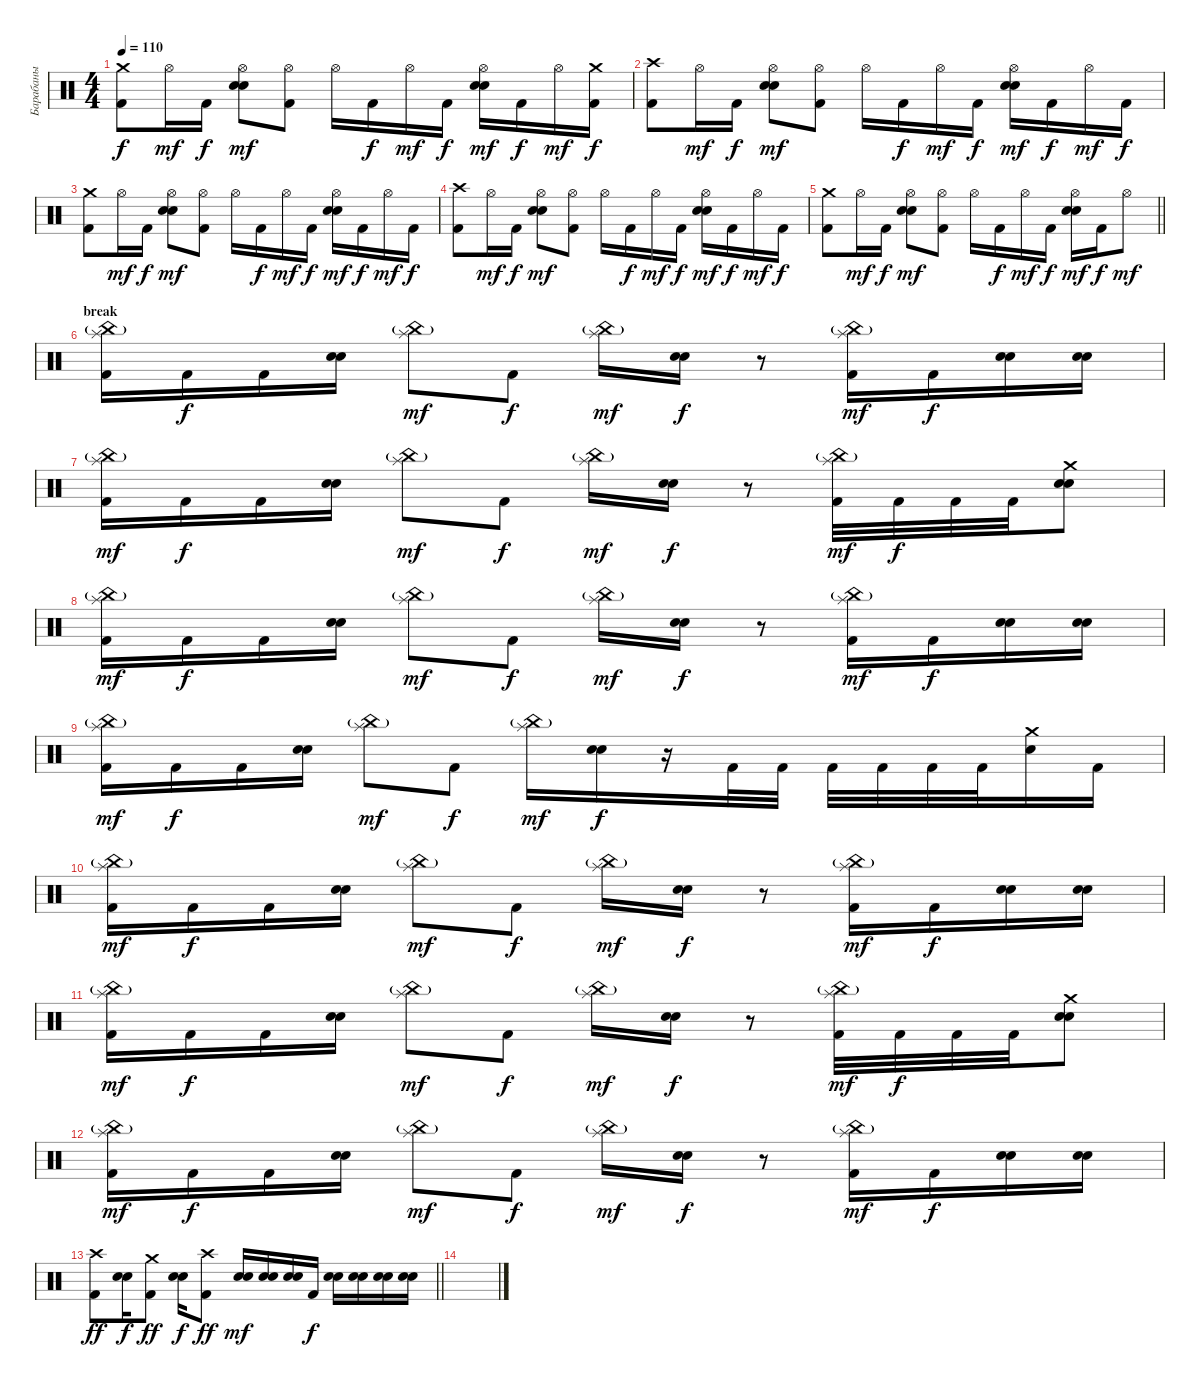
\track ("Барабаны" "Барабаны") {instrument percussion}
\staff {score}
\articulation defaults
\ts (4 4)
\tempo 110
\clef neutral
\ks c
("Crash medium (hit)" "Kick (hit) 2").8{dy f} "Hi-Hat (open)".16{dy mf} "Kick (hit) 2".16{dy f} ("Hi-Hat (open)" "Electric Snare (hit)" "Snare (hit) 2").8{dy mf} ("Hi-Hat (open)" "Kick (hit) 2").8 "Hi-Hat (open)".16 "Kick (hit) 2".16{dy f} "Hi-Hat (open)".16{dy mf} "Kick (hit) 2".16{dy f} ("Hi-Hat (open)" "Electric Snare (hit)" "Snare (hit) 2").16{dy mf} "Kick (hit) 2".16{dy f} "Hi-Hat (open)".16{dy mf} ("Crash medium (hit)" "Kick (hit) 2").16{dy f} |
("Crash high (hit)" "Kick (hit) 2").8 "Hi-Hat (open)".16{dy mf} "Kick (hit) 2".16{dy f} ("Hi-Hat (open)" "Electric Snare (hit)" "Snare (hit) 2").8{dy mf} ("Hi-Hat (open)" "Kick (hit) 2").8 "Hi-Hat (open)".16 "Kick (hit) 2".16{dy f} "Hi-Hat (open)".16{dy mf} "Kick (hit) 2".16{dy f} ("Hi-Hat (open)" "Electric Snare (hit)" "Snare (hit) 2").16{dy mf} "Kick (hit) 2".16{dy f} "Hi-Hat (open)".16{dy mf} "Kick (hit) 2".16{dy f} |
("Crash medium (hit)" "Kick (hit) 2").8 "Hi-Hat (open)".16{dy mf} "Kick (hit) 2".16{dy f} ("Hi-Hat (open)" "Electric Snare (hit)" "Snare (hit) 2").8{dy mf} ("Hi-Hat (open)" "Kick (hit) 2").8 "Hi-Hat (open)".16 "Kick (hit) 2".16{dy f} "Hi-Hat (open)".16{dy mf} "Kick (hit) 2".16{dy f} ("Hi-Hat (open)" "Electric Snare (hit)" "Snare (hit) 2").16{dy mf} "Kick (hit) 2".16{dy f} "Hi-Hat (open)".16{dy mf} "Kick (hit) 2".16{dy f} |
("Crash high (hit)" "Kick (hit) 2").8 "Hi-Hat (open)".16{dy mf} "Kick (hit) 2".16{dy f} ("Hi-Hat (open)" "Electric Snare (hit)" "Snare (hit) 2").8{dy mf} ("Hi-Hat (open)" "Kick (hit) 2").8 "Hi-Hat (open)".16 "Kick (hit) 2".16{dy f} "Hi-Hat (open)".16{dy mf} "Kick (hit) 2".16{dy f} ("Hi-Hat (open)" "Electric Snare (hit)" "Snare (hit) 2").16{dy mf} "Kick (hit) 2".16{dy f} "Hi-Hat (open)".16{dy mf} "Kick (hit) 2".16{dy f} |
\barLineRight lightlight
("Crash medium (hit)" "Kick (hit) 2").8 "Hi-Hat (open)".16{dy mf} "Kick (hit) 2".16{dy f} ("Hi-Hat (open)" "Electric Snare (hit)" "Snare (hit) 2").8{dy mf} ("Hi-Hat (open)" "Kick (hit) 2").8 "Hi-Hat (open)".16 "Kick (hit) 2".16{dy f} "Hi-Hat (open)".16{dy mf} "Kick (hit) 2".16{dy f} ("Hi-Hat (open)" "Electric Snare (hit)" "Snare (hit) 2").16{dy mf} "Kick (hit) 2".16{dy f} "Hi-Hat (open)".8{dy mf} |
\section ("" "break")
("Splash (hit)" "China (hit)"{g} "Kick (hit) 2").16 "Kick (hit) 2".16{dy f} "Kick (hit) 2".16 ("Electric Snare (hit)" "Snare (hit) 2").16 ("Splash (hit)" "China (hit)"{g}).8{dy mf} "Kick (hit) 2".8{dy f} ("Splash (hit)" "China (hit)"{g}).16{dy mf} ("Electric Snare (hit)" "Snare (hit) 2").16{dy f} r.8 ("Splash (hit)" "China (hit)"{g} "Kick (hit) 2").16{dy mf} "Kick (hit) 2".16{dy f} ("Electric Snare (hit)" "Snare (hit) 2").16 ("Electric Snare (hit)" "Snare (hit) 2").16 |
("Splash (hit)" "China (hit)"{g} "Kick (hit) 2").16{dy mf} "Kick (hit) 2".16{dy f} "Kick (hit) 2".16 ("Electric Snare (hit)" "Snare (hit) 2").16 ("Splash (hit)" "China (hit)"{g}).8{dy mf} "Kick (hit) 2".8{dy f} ("Splash (hit)" "China (hit)"{g}).16{dy mf} ("Electric Snare (hit)" "Snare (hit) 2").16{dy f} r.8 ("Splash (hit)" "China (hit)"{g} "Kick (hit) 2").32{dy mf} "Kick (hit) 2".32{dy f} "Kick (hit) 2".32 "Kick (hit) 2".32 ("Crash medium (hit)" "Electric Snare (hit)" "Snare (hit) 2").8 |
("Splash (hit)" "China (hit)"{g} "Kick (hit) 2").16{dy mf} "Kick (hit) 2".16{dy f} "Kick (hit) 2".16 ("Electric Snare (hit)" "Snare (hit) 2").16 ("Splash (hit)" "China (hit)"{g}).8{dy mf} "Kick (hit) 2".8{dy f} ("Splash (hit)" "China (hit)"{g}).16{dy mf} ("Electric Snare (hit)" "Snare (hit) 2").16{dy f} r.8 ("Splash (hit)" "China (hit)"{g} "Kick (hit) 2").16{dy mf} "Kick (hit) 2".16{dy f} ("Electric Snare (hit)" "Snare (hit) 2").16 ("Electric Snare (hit)" "Snare (hit) 2").16 |
("Splash (hit)" "China (hit)"{g} "Kick (hit) 2").16{dy mf} "Kick (hit) 2".16{dy f} "Kick (hit) 2".16 ("Electric Snare (hit)" "Snare (hit) 2").16 ("Splash (hit)" "China (hit)"{g}).8{dy mf} "Kick (hit) 2".8{dy f} ("Splash (hit)" "China (hit)"{g}).16{dy mf} ("Electric Snare (hit)" "Snare (hit) 2").16{dy f} r.16 "Kick (hit) 2".32 "Kick (hit) 2".32 "Kick (hit) 2".32 "Kick (hit) 2".32 "Kick (hit) 2".32 "Kick (hit) 2".32 ("Crash medium (hit)" "Snare (hit) 2").16 "Kick (hit) 2".16 |
("Splash (hit)" "China (hit)"{g} "Kick (hit) 2").16{dy mf} "Kick (hit) 2".16{dy f} "Kick (hit) 2".16 ("Electric Snare (hit)" "Snare (hit) 2").16 ("Splash (hit)" "China (hit)"{g}).8{dy mf} "Kick (hit) 2".8{dy f} ("Splash (hit)" "China (hit)"{g}).16{dy mf} ("Electric Snare (hit)" "Snare (hit) 2").16{dy f} r.8 ("Splash (hit)" "China (hit)"{g} "Kick (hit) 2").16{dy mf} "Kick (hit) 2".16{dy f} ("Electric Snare (hit)" "Snare (hit) 2").16 ("Electric Snare (hit)" "Snare (hit) 2").16 |
("Splash (hit)" "China (hit)"{g} "Kick (hit) 2").16{dy mf} "Kick (hit) 2".16{dy f} "Kick (hit) 2".16 ("Electric Snare (hit)" "Snare (hit) 2").16 ("Splash (hit)" "China (hit)"{g}).8{dy mf} "Kick (hit) 2".8{dy f} ("Splash (hit)" "China (hit)"{g}).16{dy mf} ("Electric Snare (hit)" "Snare (hit) 2").16{dy f} r.8 ("Splash (hit)" "China (hit)"{g} "Kick (hit) 2").32{dy mf} "Kick (hit) 2".32{dy f} "Kick (hit) 2".32 "Kick (hit) 2".32 ("Crash medium (hit)" "Electric Snare (hit)" "Snare (hit) 2").8 |
("Splash (hit)" "China (hit)"{g} "Kick (hit) 2").16{dy mf} "Kick (hit) 2".16{dy f} "Kick (hit) 2".16 ("Electric Snare (hit)" "Snare (hit) 2").16 ("Splash (hit)" "China (hit)"{g}).8{dy mf} "Kick (hit) 2".8{dy f} ("Splash (hit)" "China (hit)"{g}).16{dy mf} ("Electric Snare (hit)" "Snare (hit) 2").16{dy f} r.8 ("Splash (hit)" "China (hit)"{g} "Kick (hit) 2").16{dy mf} "Kick (hit) 2".16{dy f} ("Electric Snare (hit)" "Snare (hit) 2").16 ("Electric Snare (hit)" "Snare (hit) 2").16 |
\barLineRight lightlight
("Crash high (hit)" "Kick (hit) 2").8{dy ff} ("Electric Snare (hit)" "Snare (hit) 2").16{dy f} ("Crash medium (hit)" "Kick (hit) 2").8{dy ff} ("Electric Snare (hit)" "Snare (hit) 2").16{dy f} ("Crash high (hit)" "Kick (hit) 2").8{dy ff} ("Electric Snare (hit)" "Snare (hit) 2").16{dy mf} ("Electric Snare (hit)" "Snare (hit) 2").16 ("Electric Snare (hit)" "Snare (hit) 2").16 "Kick (hit) 2".16{dy f} ("Electric Snare (hit)" "Snare (hit) 2").16 ("Electric Snare (hit)" "Snare (hit) 2").16 ("Electric Snare (hit)" "Snare (hit) 2").16 ("Electric Snare (hit)" "Snare (hit) 2").16 |
\section ("" "")
